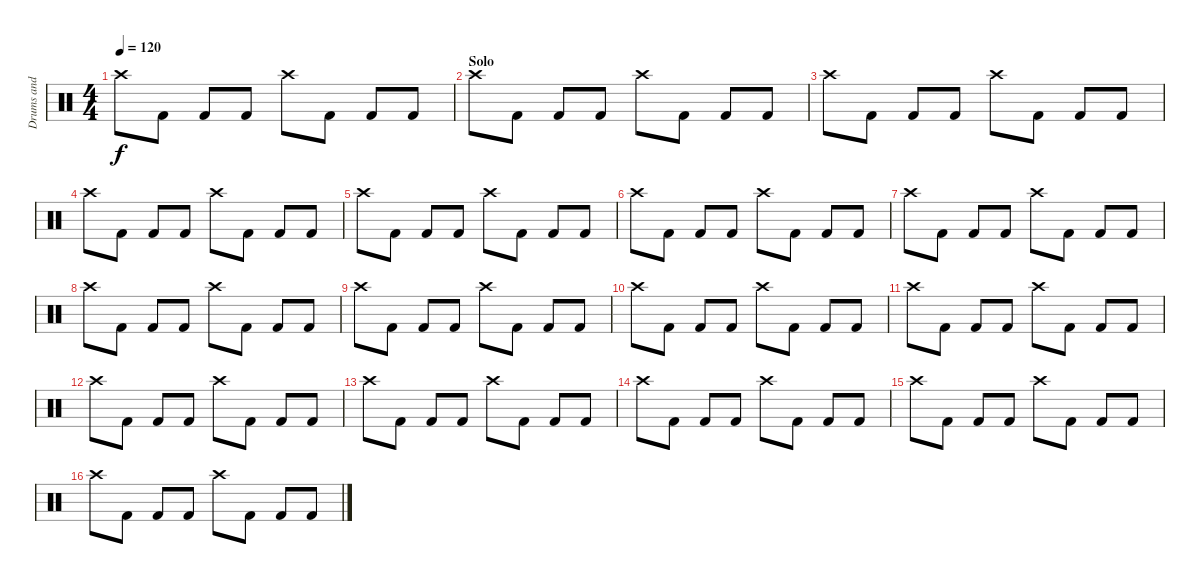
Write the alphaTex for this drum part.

\track ("Drums and Percussion" "Drums and ") {instrument percussion}
\staff {score}
\articulation defaults
\ts (4 4)
\tempo 120
\clef neutral
\ks c "Crash high (hit)".8{dy f} "Kick (hit) 2".8 "Kick (hit) 2".8 "Kick (hit) 2".8 "Crash high (hit)".8 "Kick (hit) 2".8 "Kick (hit) 2".8 "Kick (hit) 2".8
|
\section ("" "Solo")
"Crash high (hit)".8 "Kick (hit) 2".8 "Kick (hit) 2".8 "Kick (hit) 2".8 "Crash high (hit)".8 "Kick (hit) 2".8 "Kick (hit) 2".8 "Kick (hit) 2".8 |
"Crash high (hit)".8 "Kick (hit) 2".8 "Kick (hit) 2".8 "Kick (hit) 2".8 "Crash high (hit)".8 "Kick (hit) 2".8 "Kick (hit) 2".8 "Kick (hit) 2".8 |
"Crash high (hit)".8 "Kick (hit) 2".8 "Kick (hit) 2".8 "Kick (hit) 2".8 "Crash high (hit)".8 "Kick (hit) 2".8 "Kick (hit) 2".8 "Kick (hit) 2".8 |
"Crash high (hit)".8 "Kick (hit) 2".8 "Kick (hit) 2".8 "Kick (hit) 2".8 "Crash high (hit)".8 "Kick (hit) 2".8 "Kick (hit) 2".8 "Kick (hit) 2".8 |
"Crash high (hit)".8 "Kick (hit) 2".8 "Kick (hit) 2".8 "Kick (hit) 2".8 "Crash high (hit)".8 "Kick (hit) 2".8 "Kick (hit) 2".8 "Kick (hit) 2".8 |
"Crash high (hit)".8 "Kick (hit) 2".8 "Kick (hit) 2".8 "Kick (hit) 2".8 "Crash high (hit)".8 "Kick (hit) 2".8 "Kick (hit) 2".8 "Kick (hit) 2".8 |
"Crash high (hit)".8 "Kick (hit) 2".8 "Kick (hit) 2".8 "Kick (hit) 2".8 "Crash high (hit)".8 "Kick (hit) 2".8 "Kick (hit) 2".8 "Kick (hit) 2".8 |
"Crash high (hit)".8 "Kick (hit) 2".8 "Kick (hit) 2".8 "Kick (hit) 2".8 "Crash high (hit)".8 "Kick (hit) 2".8 "Kick (hit) 2".8 "Kick (hit) 2".8 |
"Crash high (hit)".8 "Kick (hit) 2".8 "Kick (hit) 2".8 "Kick (hit) 2".8 "Crash high (hit)".8 "Kick (hit) 2".8 "Kick (hit) 2".8 "Kick (hit) 2".8 |
"Crash high (hit)".8 "Kick (hit) 2".8 "Kick (hit) 2".8 "Kick (hit) 2".8 "Crash high (hit)".8 "Kick (hit) 2".8 "Kick (hit) 2".8 "Kick (hit) 2".8 |
"Crash high (hit)".8 "Kick (hit) 2".8 "Kick (hit) 2".8 "Kick (hit) 2".8 "Crash high (hit)".8 "Kick (hit) 2".8 "Kick (hit) 2".8 "Kick (hit) 2".8 |
"Crash high (hit)".8 "Kick (hit) 2".8 "Kick (hit) 2".8 "Kick (hit) 2".8 "Crash high (hit)".8 "Kick (hit) 2".8 "Kick (hit) 2".8 "Kick (hit) 2".8 |
"Crash high (hit)".8 "Kick (hit) 2".8 "Kick (hit) 2".8 "Kick (hit) 2".8 "Crash high (hit)".8 "Kick (hit) 2".8 "Kick (hit) 2".8 "Kick (hit) 2".8 |
"Crash high (hit)".8 "Kick (hit) 2".8 "Kick (hit) 2".8 "Kick (hit) 2".8 "Crash high (hit)".8 "Kick (hit) 2".8 "Kick (hit) 2".8 "Kick (hit) 2".8 |
"Crash high (hit)".8 "Kick (hit) 2".8 "Kick (hit) 2".8 "Kick (hit) 2".8 "Crash high (hit)".8 "Kick (hit) 2".8 "Kick (hit) 2".8 "Kick (hit) 2".8
